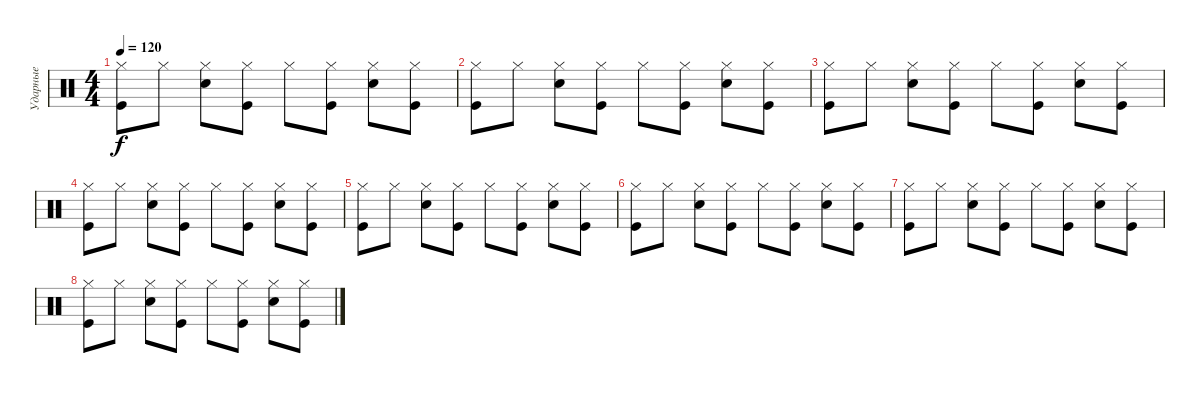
\track ("Ударные" "Ударные") {instrument percussion}
\staff {score}
\articulation defaults
\ts (4 4)
\tempo 120
\clef neutral
\ks c
("Kick (hit)" "Hi-Hat (closed)").8{dy f} "Hi-Hat (closed)".8 ("Snare (hit) 2" "Hi-Hat (closed)").8 ("Kick (hit)" "Hi-Hat (closed)").8 "Hi-Hat (closed)".8 ("Kick (hit)" "Hi-Hat (closed)").8 ("Snare (hit) 2" "Hi-Hat (closed)").8 ("Kick (hit)" "Hi-Hat (closed)").8 |
("Kick (hit)" "Hi-Hat (closed)").8 "Hi-Hat (closed)".8 ("Snare (hit) 2" "Hi-Hat (closed)").8 ("Kick (hit)" "Hi-Hat (closed)").8 "Hi-Hat (closed)".8 ("Kick (hit)" "Hi-Hat (closed)").8 ("Snare (hit) 2" "Hi-Hat (closed)").8 ("Kick (hit)" "Hi-Hat (closed)").8 |
("Kick (hit)" "Hi-Hat (closed)").8 "Hi-Hat (closed)".8 ("Snare (hit) 2" "Hi-Hat (closed)").8 ("Kick (hit)" "Hi-Hat (closed)").8 "Hi-Hat (closed)".8 ("Kick (hit)" "Hi-Hat (closed)").8 ("Snare (hit) 2" "Hi-Hat (closed)").8 ("Kick (hit)" "Hi-Hat (closed)").8 |
("Kick (hit)" "Hi-Hat (closed)").8 "Hi-Hat (closed)".8 ("Snare (hit) 2" "Hi-Hat (closed)").8 ("Kick (hit)" "Hi-Hat (closed)").8 "Hi-Hat (closed)".8 ("Kick (hit)" "Hi-Hat (closed)").8 ("Snare (hit) 2" "Hi-Hat (closed)").8 ("Kick (hit)" "Hi-Hat (closed)").8 |
("Kick (hit)" "Hi-Hat (closed)").8 "Hi-Hat (closed)".8 ("Snare (hit) 2" "Hi-Hat (closed)").8 ("Kick (hit)" "Hi-Hat (closed)").8 "Hi-Hat (closed)".8 ("Kick (hit)" "Hi-Hat (closed)").8 ("Snare (hit) 2" "Hi-Hat (closed)").8 ("Kick (hit)" "Hi-Hat (closed)").8 |
("Kick (hit)" "Hi-Hat (closed)").8 "Hi-Hat (closed)".8 ("Snare (hit) 2" "Hi-Hat (closed)").8 ("Kick (hit)" "Hi-Hat (closed)").8 "Hi-Hat (closed)".8 ("Kick (hit)" "Hi-Hat (closed)").8 ("Snare (hit) 2" "Hi-Hat (closed)").8 ("Kick (hit)" "Hi-Hat (closed)").8 |
("Kick (hit)" "Hi-Hat (closed)").8 "Hi-Hat (closed)".8 ("Snare (hit) 2" "Hi-Hat (closed)").8 ("Kick (hit)" "Hi-Hat (closed)").8 "Hi-Hat (closed)".8 ("Kick (hit)" "Hi-Hat (closed)").8 ("Snare (hit) 2" "Hi-Hat (closed)").8 ("Kick (hit)" "Hi-Hat (closed)").8 |
("Kick (hit)" "Hi-Hat (closed)").8 "Hi-Hat (closed)".8 ("Snare (hit) 2" "Hi-Hat (closed)").8 ("Kick (hit)" "Hi-Hat (closed)").8 "Hi-Hat (closed)".8 ("Kick (hit)" "Hi-Hat (closed)").8 ("Snare (hit) 2" "Hi-Hat (closed)").8 ("Kick (hit)" "Hi-Hat (closed)").8
